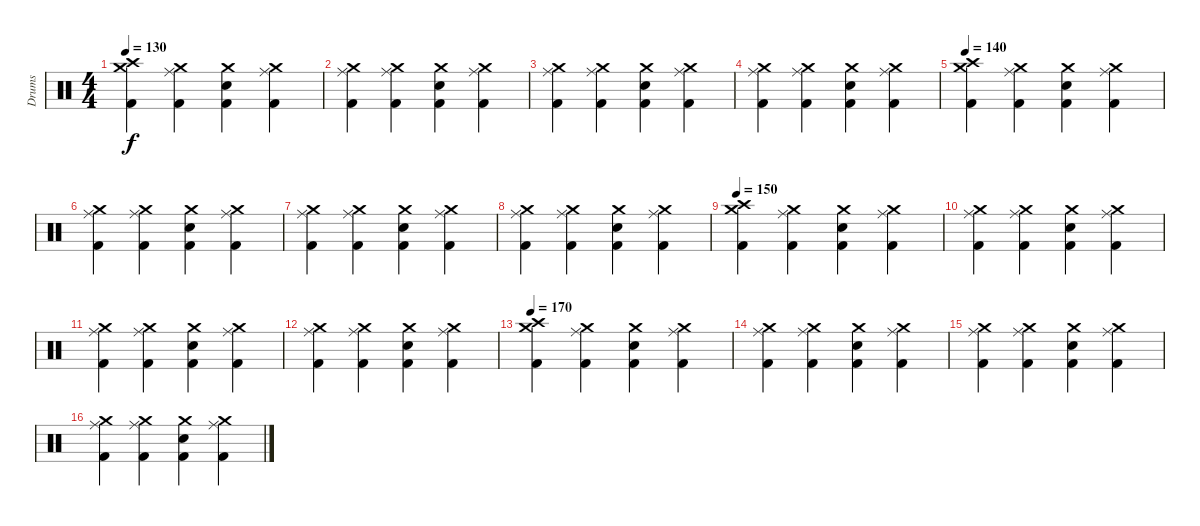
\track ("Drums" "Drums") {instrument percussion}
\staff {score}
\articulation defaults
\ts (4 4)
\tempo 130
\clef neutral
\ks c
("Crash medium (hit)" "Crash high (hit)" "Kick (hit) 2").4{dy f} ("Crash medium (hit)" "Ride (middle)" "Kick (hit) 2").4 ("Crash medium (hit)" "Snare (hit) 2" "Kick (hit) 2").4 ("Crash medium (hit)" "Ride (middle)" "Kick (hit) 2").4 |
("Crash medium (hit)" "Ride (middle)" "Kick (hit) 2").4 ("Crash medium (hit)" "Ride (middle)" "Kick (hit) 2").4 ("Crash medium (hit)" "Snare (hit) 2" "Kick (hit) 2").4 ("Crash medium (hit)" "Ride (middle)" "Kick (hit) 2").4 |
("Crash medium (hit)" "Ride (middle)" "Kick (hit) 2").4 ("Crash medium (hit)" "Ride (middle)" "Kick (hit) 2").4 ("Crash medium (hit)" "Snare (hit) 2" "Kick (hit) 2").4 ("Crash medium (hit)" "Ride (middle)" "Kick (hit) 2").4 |
("Crash medium (hit)" "Ride (middle)" "Kick (hit) 2").4 ("Crash medium (hit)" "Ride (middle)" "Kick (hit) 2").4 ("Crash medium (hit)" "Snare (hit) 2" "Kick (hit) 2").4 ("Crash medium (hit)" "Ride (middle)" "Kick (hit) 2").4 |
\tempo 140
("Crash medium (hit)" "Crash high (hit)" "Kick (hit) 2").4 ("Crash medium (hit)" "Ride (middle)" "Kick (hit) 2").4 ("Crash medium (hit)" "Snare (hit) 2" "Kick (hit) 2").4 ("Crash medium (hit)" "Ride (middle)" "Kick (hit) 2").4 |
("Crash medium (hit)" "Ride (middle)" "Kick (hit) 2").4 ("Crash medium (hit)" "Ride (middle)" "Kick (hit) 2").4 ("Crash medium (hit)" "Snare (hit) 2" "Kick (hit) 2").4 ("Crash medium (hit)" "Ride (middle)" "Kick (hit) 2").4 |
("Crash medium (hit)" "Ride (middle)" "Kick (hit) 2").4 ("Crash medium (hit)" "Ride (middle)" "Kick (hit) 2").4 ("Crash medium (hit)" "Snare (hit) 2" "Kick (hit) 2").4 ("Crash medium (hit)" "Ride (middle)" "Kick (hit) 2").4 |
("Crash medium (hit)" "Ride (middle)" "Kick (hit) 2").4 ("Crash medium (hit)" "Ride (middle)" "Kick (hit) 2").4 ("Crash medium (hit)" "Snare (hit) 2" "Kick (hit) 2").4 ("Crash medium (hit)" "Ride (middle)" "Kick (hit) 2").4 |
\tempo 150
("Crash medium (hit)" "Crash high (hit)" "Kick (hit) 2").4 ("Crash medium (hit)" "Ride (middle)" "Kick (hit) 2").4 ("Crash medium (hit)" "Snare (hit) 2" "Kick (hit) 2").4 ("Crash medium (hit)" "Ride (middle)" "Kick (hit) 2").4 |
("Crash medium (hit)" "Ride (middle)" "Kick (hit) 2").4 ("Crash medium (hit)" "Ride (middle)" "Kick (hit) 2").4 ("Crash medium (hit)" "Snare (hit) 2" "Kick (hit) 2").4 ("Crash medium (hit)" "Ride (middle)" "Kick (hit) 2").4 |
("Crash medium (hit)" "Ride (middle)" "Kick (hit) 2").4 ("Crash medium (hit)" "Ride (middle)" "Kick (hit) 2").4 ("Crash medium (hit)" "Snare (hit) 2" "Kick (hit) 2").4 ("Crash medium (hit)" "Ride (middle)" "Kick (hit) 2").4 |
("Crash medium (hit)" "Ride (middle)" "Kick (hit) 2").4 ("Crash medium (hit)" "Ride (middle)" "Kick (hit) 2").4 ("Crash medium (hit)" "Snare (hit) 2" "Kick (hit) 2").4 ("Crash medium (hit)" "Ride (middle)" "Kick (hit) 2").4 |
\tempo 170
("Crash medium (hit)" "Crash high (hit)" "Kick (hit) 2").4 ("Crash medium (hit)" "Ride (middle)" "Kick (hit) 2").4 ("Crash medium (hit)" "Snare (hit) 2" "Kick (hit) 2").4 ("Crash medium (hit)" "Ride (middle)" "Kick (hit) 2").4 |
("Crash medium (hit)" "Ride (middle)" "Kick (hit) 2").4 ("Crash medium (hit)" "Ride (middle)" "Kick (hit) 2").4 ("Crash medium (hit)" "Snare (hit) 2" "Kick (hit) 2").4 ("Crash medium (hit)" "Ride (middle)" "Kick (hit) 2").4 |
("Crash medium (hit)" "Ride (middle)" "Kick (hit) 2").4 ("Crash medium (hit)" "Ride (middle)" "Kick (hit) 2").4 ("Crash medium (hit)" "Snare (hit) 2" "Kick (hit) 2").4 ("Crash medium (hit)" "Ride (middle)" "Kick (hit) 2").4 |
("Crash medium (hit)" "Ride (middle)" "Kick (hit) 2").4 ("Crash medium (hit)" "Ride (middle)" "Kick (hit) 2").4 ("Crash medium (hit)" "Snare (hit) 2" "Kick (hit) 2").4 ("Crash medium (hit)" "Ride (middle)" "Kick (hit) 2").4
